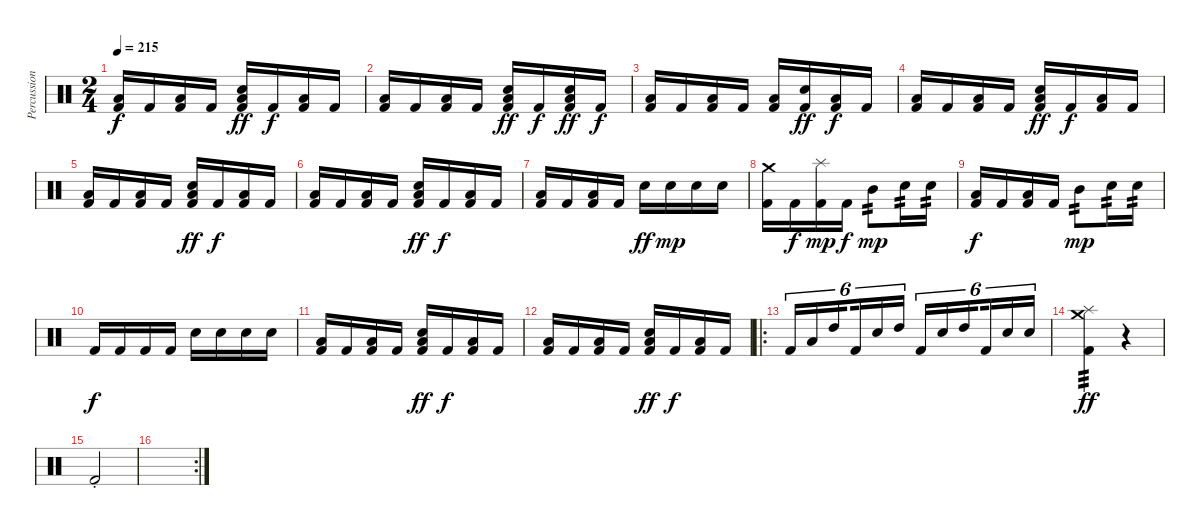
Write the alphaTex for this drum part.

\track ("Percussion" "Percussion") {instrument percussion}
\staff {score}
\articulation defaults
\ts (2 4)
\tempo 215
\clef neutral
\ks c
("Kick (hit) 2" "Low Tom (hit)").16{dy f} "Kick (hit) 2".16 ("Kick (hit) 2" "Low Tom (hit)").16 "Kick (hit) 2".16 ("Kick (hit) 2" "Snare (hit) 2" "Low Tom (hit)").16{dy ff} "Kick (hit) 2".16{dy f} ("Kick (hit) 2" "Low Tom (hit)").16 "Kick (hit) 2".16 |
("Kick (hit) 2" "Low Tom (hit)").16 "Kick (hit) 2".16 ("Kick (hit) 2" "Low Tom (hit)").16 "Kick (hit) 2".16 ("Kick (hit) 2" "Snare (hit) 2" "Low Tom (hit)").16{dy ff} "Kick (hit) 2".16{dy f} ("Kick (hit) 2" "Snare (hit) 2" "Low Tom (hit)").16{dy ff} "Kick (hit) 2".16{dy f} |
("Kick (hit) 2" "Low Tom (hit)").16 "Kick (hit) 2".16 ("Kick (hit) 2" "Low Tom (hit)").16 "Kick (hit) 2".16 ("Kick (hit) 2" "Low Tom (hit)").16 ("Kick (hit) 2" "Snare (hit) 2").16{dy ff} ("Kick (hit) 2" "Low Tom (hit)").16{dy f} "Kick (hit) 2".16 |
("Kick (hit) 2" "Low Tom (hit)").16 "Kick (hit) 2".16 ("Kick (hit) 2" "Low Tom (hit)").16 "Kick (hit) 2".16 ("Kick (hit) 2" "Snare (hit) 2" "Low Tom (hit)").16{dy ff} "Kick (hit) 2".16{dy f} ("Kick (hit) 2" "Low Tom (hit)").16 "Kick (hit) 2".16 |
("Kick (hit) 2" "Low Tom (hit)").16 "Kick (hit) 2".16 ("Kick (hit) 2" "Low Tom (hit)").16 "Kick (hit) 2".16 ("Kick (hit) 2" "Snare (hit) 2" "Low Tom (hit)").16{dy ff} "Kick (hit) 2".16{dy f} ("Kick (hit) 2" "Low Tom (hit)").16 "Kick (hit) 2".16 |
("Kick (hit) 2" "Low Tom (hit)").16 "Kick (hit) 2".16 ("Kick (hit) 2" "Low Tom (hit)").16 "Kick (hit) 2".16 ("Kick (hit) 2" "Snare (hit) 2" "Low Tom (hit)").16{dy ff} "Kick (hit) 2".16{dy f} ("Kick (hit) 2" "Low Tom (hit)").16 "Kick (hit) 2".16 |
("Kick (hit) 2" "Low Tom (hit)").16 "Kick (hit) 2".16 ("Kick (hit) 2" "Low Tom (hit)").16 "Kick (hit) 2".16 "Snare (hit) 2".16{dy ff} "Snare (hit) 2".16{dy mp} "Snare (hit) 2".16 "Snare (hit) 2".16 |
("Kick (hit) 2" "Crash medium (hit)").16 "Kick (hit) 2".16{dy f} ("Kick (hit) 2" "Splash (hit)").16{dy mp} "Kick (hit) 2".16{dy f} "Mid Tom (hit)".8{tp 2 dy mp} "Snare (hit) 2".16{tp 2} "Snare (hit) 2".16{tp 2} |
("Kick (hit) 2" "Low Tom (hit)").16{dy f} "Kick (hit) 2".16 ("Kick (hit) 2" "Low Tom (hit)").16 "Kick (hit) 2".16 "Mid Tom (hit)".8{tp 2 dy mp} "Snare (hit) 2".16{tp 2} "Snare (hit) 2".16{tp 2} |
"Kick (hit) 2".16{dy f} "Kick (hit) 2".16 "Kick (hit) 2".16 "Kick (hit) 2".16 "Snare (hit) 2".16 "Snare (hit) 2".16 "Snare (hit) 2".16 "Snare (hit) 2".16 |
("Kick (hit) 2" "Low Tom (hit)").16 "Kick (hit) 2".16 ("Kick (hit) 2" "Low Tom (hit)").16 "Kick (hit) 2".16 ("Kick (hit) 2" "Snare (hit) 2" "Low Tom (hit)").16{dy ff} "Kick (hit) 2".16{dy f} ("Kick (hit) 2" "Low Tom (hit)").16 "Kick (hit) 2".16 |
("Kick (hit) 2" "Low Tom (hit)").16 "Kick (hit) 2".16 ("Kick (hit) 2" "Low Tom (hit)").16 "Kick (hit) 2".16 ("Kick (hit) 2" "Snare (hit) 2" "Low Tom (hit)").16{dy ff} "Kick (hit) 2".16{dy f} ("Kick (hit) 2" "Low Tom (hit)").16 "Kick (hit) 2".16 |
\ro "Kick (hit) 2".16{tu (6 4)} "Low Tom (hit)".16{tu (6 4)} "High Tom (hit)".16{tu (6 4) beam splitsecondary} "Kick (hit) 2".16{tu (6 4)} "Snare (hit) 2".16{tu (6 4)} "High Tom (hit)".16{tu (6 4)} "Kick (hit) 2".16{tu (6 4)} "Metronome (bell)".16{tu (6 4)} "High Tom (hit)".16{tu (6 4) beam splitsecondary} "Kick (hit) 2".16{tu (6 4)} "Snare (hit) 2".16{tu (6 4)} "Snare (hit) 2".16{tu (6 4)}
|
("Kick (hit) 2" "Crash medium (hit)" "Splash (hit)").4{tp 3 dy ff} r.4 |
"Kick (hit) 2"{st}.2 |
\rc 2
